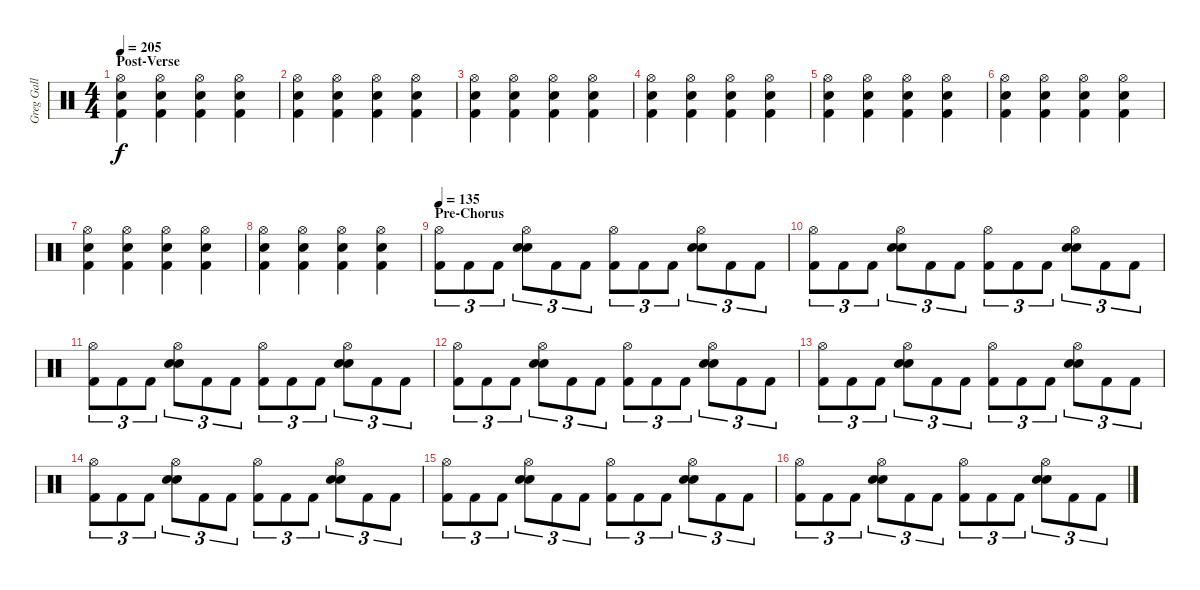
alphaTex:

\track ("Greg Gall - Drums" "Greg Gall ") {instrument percussion}
\staff {score}
\articulation defaults
\ts (4 4)
\section ("" "Post-Verse")
\tempo 205
\clef neutral
\ks c
("Hi-Hat (open)" "Snare (hit) 2" "Kick (hit) 2").4{dy f} ("Hi-Hat (open)" "Snare (hit) 2" "Kick (hit) 2").4 ("Hi-Hat (open)" "Snare (hit) 2" "Kick (hit) 2").4 ("Hi-Hat (open)" "Snare (hit) 2" "Kick (hit) 2").4 |
("Hi-Hat (open)" "Snare (hit) 2" "Kick (hit) 2").4 ("Hi-Hat (open)" "Snare (hit) 2" "Kick (hit) 2").4 ("Hi-Hat (open)" "Snare (hit) 2" "Kick (hit) 2").4 ("Hi-Hat (open)" "Snare (hit) 2" "Kick (hit) 2").4 |
("Hi-Hat (open)" "Snare (hit) 2" "Kick (hit) 2").4 ("Hi-Hat (open)" "Snare (hit) 2" "Kick (hit) 2").4 ("Hi-Hat (open)" "Snare (hit) 2" "Kick (hit) 2").4 ("Hi-Hat (open)" "Snare (hit) 2" "Kick (hit) 2").4 |
("Hi-Hat (open)" "Snare (hit) 2" "Kick (hit) 2").4 ("Hi-Hat (open)" "Snare (hit) 2" "Kick (hit) 2").4 ("Hi-Hat (open)" "Snare (hit) 2" "Kick (hit) 2").4 ("Hi-Hat (open)" "Snare (hit) 2" "Kick (hit) 2").4 |
("Hi-Hat (open)" "Snare (hit) 2" "Kick (hit) 2").4 ("Hi-Hat (open)" "Snare (hit) 2" "Kick (hit) 2").4 ("Hi-Hat (open)" "Snare (hit) 2" "Kick (hit) 2").4 ("Hi-Hat (open)" "Snare (hit) 2" "Kick (hit) 2").4 |
("Hi-Hat (open)" "Snare (hit) 2" "Kick (hit) 2").4 ("Hi-Hat (open)" "Snare (hit) 2" "Kick (hit) 2").4 ("Hi-Hat (open)" "Snare (hit) 2" "Kick (hit) 2").4 ("Hi-Hat (open)" "Snare (hit) 2" "Kick (hit) 2").4 |
("Hi-Hat (open)" "Snare (hit) 2" "Kick (hit) 2").4 ("Hi-Hat (open)" "Snare (hit) 2" "Kick (hit) 2").4 ("Hi-Hat (open)" "Snare (hit) 2" "Kick (hit) 2").4 ("Hi-Hat (open)" "Snare (hit) 2" "Kick (hit) 2").4 |
("Hi-Hat (open)" "Snare (hit) 2" "Kick (hit) 2").4 ("Hi-Hat (open)" "Snare (hit) 2" "Kick (hit) 2").4 ("Hi-Hat (open)" "Snare (hit) 2" "Kick (hit) 2").4 ("Hi-Hat (open)" "Snare (hit) 2" "Kick (hit) 2").4 |
\section ("" "Pre-Chorus")
\tempo 135
("Hi-Hat (open)" "Kick (hit) 2").8{tu (3 2)} "Kick (hit) 2".8{tu (3 2)} "Kick (hit) 2".8{tu (3 2)} ("Hi-Hat (open)" "Electric Snare (hit)" "Snare (hit) 2").8{tu (3 2)} "Kick (hit) 2".8{tu (3 2)} "Kick (hit) 2".8{tu (3 2)} ("Hi-Hat (open)" "Kick (hit) 2").8{tu (3 2)} "Kick (hit) 2".8{tu (3 2)} "Kick (hit) 2".8{tu (3 2)} ("Hi-Hat (open)" "Electric Snare (hit)" "Snare (hit) 2").8{tu (3 2)} "Kick (hit) 2".8{tu (3 2)} "Kick (hit) 2".8{tu (3 2)} |
("Hi-Hat (open)" "Kick (hit) 2").8{tu (3 2)} "Kick (hit) 2".8{tu (3 2)} "Kick (hit) 2".8{tu (3 2)} ("Hi-Hat (open)" "Electric Snare (hit)" "Snare (hit) 2").8{tu (3 2)} "Kick (hit) 2".8{tu (3 2)} "Kick (hit) 2".8{tu (3 2)} ("Hi-Hat (open)" "Kick (hit) 2").8{tu (3 2)} "Kick (hit) 2".8{tu (3 2)} "Kick (hit) 2".8{tu (3 2)} ("Hi-Hat (open)" "Electric Snare (hit)" "Snare (hit) 2").8{tu (3 2)} "Kick (hit) 2".8{tu (3 2)} "Kick (hit) 2".8{tu (3 2)} |
("Hi-Hat (open)" "Kick (hit) 2").8{tu (3 2)} "Kick (hit) 2".8{tu (3 2)} "Kick (hit) 2".8{tu (3 2)} ("Hi-Hat (open)" "Electric Snare (hit)" "Snare (hit) 2").8{tu (3 2)} "Kick (hit) 2".8{tu (3 2)} "Kick (hit) 2".8{tu (3 2)} ("Hi-Hat (open)" "Kick (hit) 2").8{tu (3 2)} "Kick (hit) 2".8{tu (3 2)} "Kick (hit) 2".8{tu (3 2)} ("Hi-Hat (open)" "Electric Snare (hit)" "Snare (hit) 2").8{tu (3 2)} "Kick (hit) 2".8{tu (3 2)} "Kick (hit) 2".8{tu (3 2)} |
("Hi-Hat (open)" "Kick (hit) 2").8{tu (3 2)} "Kick (hit) 2".8{tu (3 2)} "Kick (hit) 2".8{tu (3 2)} ("Hi-Hat (open)" "Electric Snare (hit)" "Snare (hit) 2").8{tu (3 2)} "Kick (hit) 2".8{tu (3 2)} "Kick (hit) 2".8{tu (3 2)} ("Hi-Hat (open)" "Kick (hit) 2").8{tu (3 2)} "Kick (hit) 2".8{tu (3 2)} "Kick (hit) 2".8{tu (3 2)} ("Hi-Hat (open)" "Electric Snare (hit)" "Snare (hit) 2").8{tu (3 2)} "Kick (hit) 2".8{tu (3 2)} "Kick (hit) 2".8{tu (3 2)} |
("Hi-Hat (open)" "Kick (hit) 2").8{tu (3 2)} "Kick (hit) 2".8{tu (3 2)} "Kick (hit) 2".8{tu (3 2)} ("Hi-Hat (open)" "Electric Snare (hit)" "Snare (hit) 2").8{tu (3 2)} "Kick (hit) 2".8{tu (3 2)} "Kick (hit) 2".8{tu (3 2)} ("Hi-Hat (open)" "Kick (hit) 2").8{tu (3 2)} "Kick (hit) 2".8{tu (3 2)} "Kick (hit) 2".8{tu (3 2)} ("Hi-Hat (open)" "Electric Snare (hit)" "Snare (hit) 2").8{tu (3 2)} "Kick (hit) 2".8{tu (3 2)} "Kick (hit) 2".8{tu (3 2)} |
("Hi-Hat (open)" "Kick (hit) 2").8{tu (3 2)} "Kick (hit) 2".8{tu (3 2)} "Kick (hit) 2".8{tu (3 2)} ("Hi-Hat (open)" "Electric Snare (hit)" "Snare (hit) 2").8{tu (3 2)} "Kick (hit) 2".8{tu (3 2)} "Kick (hit) 2".8{tu (3 2)} ("Hi-Hat (open)" "Kick (hit) 2").8{tu (3 2)} "Kick (hit) 2".8{tu (3 2)} "Kick (hit) 2".8{tu (3 2)} ("Hi-Hat (open)" "Electric Snare (hit)" "Snare (hit) 2").8{tu (3 2)} "Kick (hit) 2".8{tu (3 2)} "Kick (hit) 2".8{tu (3 2)} |
("Hi-Hat (open)" "Kick (hit) 2").8{tu (3 2)} "Kick (hit) 2".8{tu (3 2)} "Kick (hit) 2".8{tu (3 2)} ("Hi-Hat (open)" "Electric Snare (hit)" "Snare (hit) 2").8{tu (3 2)} "Kick (hit) 2".8{tu (3 2)} "Kick (hit) 2".8{tu (3 2)} ("Hi-Hat (open)" "Kick (hit) 2").8{tu (3 2)} "Kick (hit) 2".8{tu (3 2)} "Kick (hit) 2".8{tu (3 2)} ("Hi-Hat (open)" "Electric Snare (hit)" "Snare (hit) 2").8{tu (3 2)} "Kick (hit) 2".8{tu (3 2)} "Kick (hit) 2".8{tu (3 2)} |
("Hi-Hat (open)" "Kick (hit) 2").8{tu (3 2)} "Kick (hit) 2".8{tu (3 2)} "Kick (hit) 2".8{tu (3 2)} ("Hi-Hat (open)" "Electric Snare (hit)" "Snare (hit) 2").8{tu (3 2)} "Kick (hit) 2".8{tu (3 2)} "Kick (hit) 2".8{tu (3 2)} ("Hi-Hat (open)" "Kick (hit) 2").8{tu (3 2)} "Kick (hit) 2".8{tu (3 2)} "Kick (hit) 2".8{tu (3 2)} ("Hi-Hat (open)" "Electric Snare (hit)" "Snare (hit) 2").8{tu (3 2)} "Kick (hit) 2".8{tu (3 2)} "Kick (hit) 2".8{tu (3 2)}
